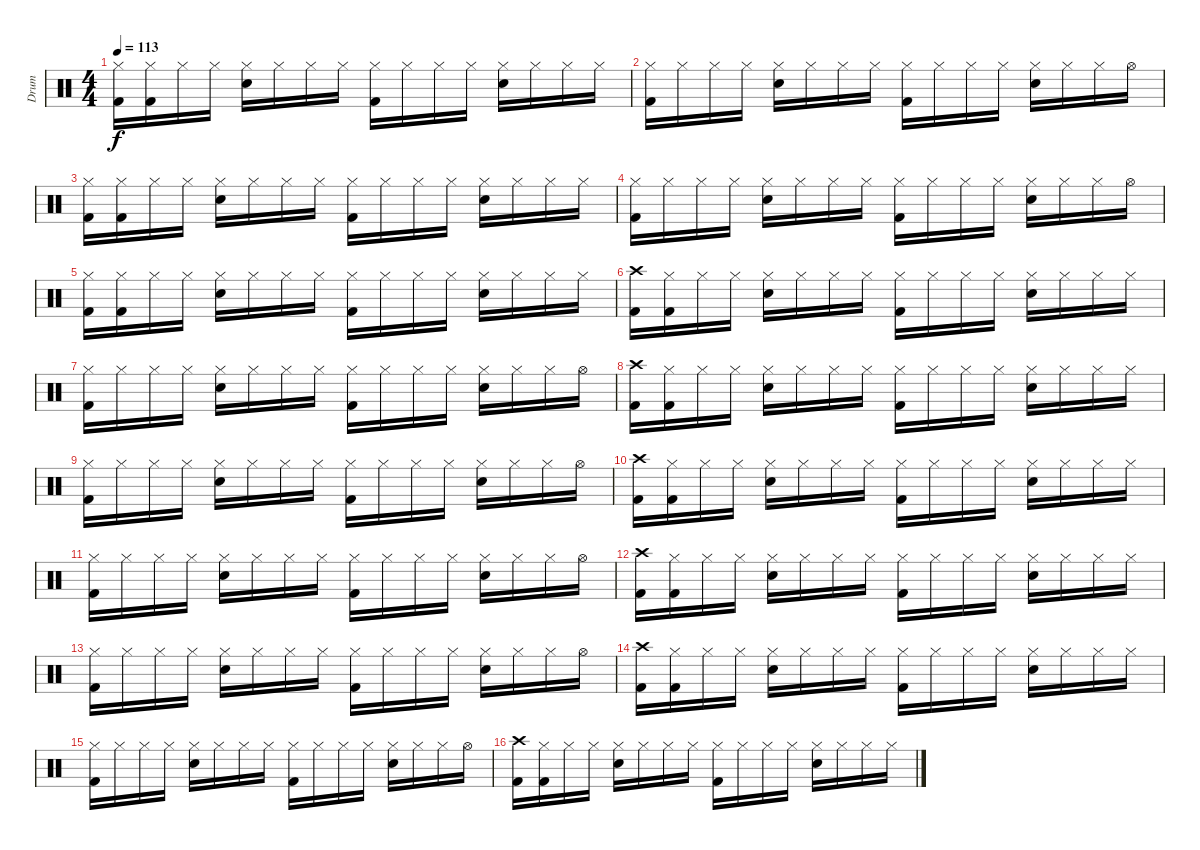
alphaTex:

\track ("Drum" "Drum") {instrument percussion}
\staff {score}
\articulation defaults
\ts (4 4)
\tempo 113
\clef neutral
\ks c
("Hi-Hat (closed)" "Kick (hit) 2").16{dy f} ("Hi-Hat (closed)" "Kick (hit) 2").16 "Hi-Hat (closed)".16 "Hi-Hat (closed)".16 ("Hi-Hat (closed)" "Snare (hit) 2").16 "Hi-Hat (closed)".16 "Hi-Hat (closed)".16 "Hi-Hat (closed)".16 ("Hi-Hat (closed)" "Kick (hit) 2").16 "Hi-Hat (closed)".16 "Hi-Hat (closed)".16 "Hi-Hat (closed)".16 ("Hi-Hat (closed)" "Snare (hit) 2").16 "Hi-Hat (closed)".16 "Hi-Hat (closed)".16 "Hi-Hat (closed)".16 |
("Hi-Hat (closed)" "Kick (hit) 2").16 "Hi-Hat (closed)".16 "Hi-Hat (closed)".16 "Hi-Hat (closed)".16 ("Hi-Hat (closed)" "Snare (hit) 2").16 "Hi-Hat (closed)".16 "Hi-Hat (closed)".16 "Hi-Hat (closed)".16 ("Hi-Hat (closed)" "Kick (hit) 2").16 "Hi-Hat (closed)".16 "Hi-Hat (closed)".16 "Hi-Hat (closed)".16 ("Hi-Hat (closed)" "Snare (hit) 2").16 "Hi-Hat (closed)".16 "Hi-Hat (closed)".16 "Hi-Hat (open)".16 |
("Hi-Hat (closed)" "Kick (hit) 2").16 ("Hi-Hat (closed)" "Kick (hit) 2").16 "Hi-Hat (closed)".16 "Hi-Hat (closed)".16 ("Hi-Hat (closed)" "Snare (hit) 2").16 "Hi-Hat (closed)".16 "Hi-Hat (closed)".16 "Hi-Hat (closed)".16 ("Hi-Hat (closed)" "Kick (hit) 2").16 "Hi-Hat (closed)".16 "Hi-Hat (closed)".16 "Hi-Hat (closed)".16 ("Hi-Hat (closed)" "Snare (hit) 2").16 "Hi-Hat (closed)".16 "Hi-Hat (closed)".16 "Hi-Hat (closed)".16 |
("Hi-Hat (closed)" "Kick (hit) 2").16 "Hi-Hat (closed)".16 "Hi-Hat (closed)".16 "Hi-Hat (closed)".16 ("Hi-Hat (closed)" "Snare (hit) 2").16 "Hi-Hat (closed)".16 "Hi-Hat (closed)".16 "Hi-Hat (closed)".16 ("Hi-Hat (closed)" "Kick (hit) 2").16 "Hi-Hat (closed)".16 "Hi-Hat (closed)".16 "Hi-Hat (closed)".16 ("Hi-Hat (closed)" "Snare (hit) 2").16 "Hi-Hat (closed)".16 "Hi-Hat (closed)".16 "Hi-Hat (open)".16 |
("Hi-Hat (closed)" "Kick (hit) 2").16 ("Hi-Hat (closed)" "Kick (hit) 2").16 "Hi-Hat (closed)".16 "Hi-Hat (closed)".16 ("Hi-Hat (closed)" "Snare (hit) 2").16 "Hi-Hat (closed)".16 "Hi-Hat (closed)".16 "Hi-Hat (closed)".16 ("Hi-Hat (closed)" "Kick (hit) 2").16 "Hi-Hat (closed)".16 "Hi-Hat (closed)".16 "Hi-Hat (closed)".16 ("Hi-Hat (closed)" "Snare (hit) 2").16 "Hi-Hat (closed)".16 "Hi-Hat (closed)".16 "Hi-Hat (closed)".16 |
("Crash high (hit)" "Kick (hit) 2").16 ("Hi-Hat (closed)" "Kick (hit) 2").16 "Hi-Hat (closed)".16 "Hi-Hat (closed)".16 ("Hi-Hat (closed)" "Snare (hit) 2").16 "Hi-Hat (closed)".16 "Hi-Hat (closed)".16 "Hi-Hat (closed)".16 ("Hi-Hat (closed)" "Kick (hit) 2").16 "Hi-Hat (closed)".16 "Hi-Hat (closed)".16 "Hi-Hat (closed)".16 ("Hi-Hat (closed)" "Snare (hit) 2").16 "Hi-Hat (closed)".16 "Hi-Hat (closed)".16 "Hi-Hat (closed)".16 |
("Hi-Hat (closed)" "Kick (hit) 2").16 "Hi-Hat (closed)".16 "Hi-Hat (closed)".16 "Hi-Hat (closed)".16 ("Hi-Hat (closed)" "Snare (hit) 2").16 "Hi-Hat (closed)".16 "Hi-Hat (closed)".16 "Hi-Hat (closed)".16 ("Hi-Hat (closed)" "Kick (hit) 2").16 "Hi-Hat (closed)".16 "Hi-Hat (closed)".16 "Hi-Hat (closed)".16 ("Hi-Hat (closed)" "Snare (hit) 2").16 "Hi-Hat (closed)".16 "Hi-Hat (closed)".16 "Hi-Hat (open)".16 |
("Crash high (hit)" "Kick (hit) 2").16 ("Hi-Hat (closed)" "Kick (hit) 2").16 "Hi-Hat (closed)".16 "Hi-Hat (closed)".16 ("Hi-Hat (closed)" "Snare (hit) 2").16 "Hi-Hat (closed)".16 "Hi-Hat (closed)".16 "Hi-Hat (closed)".16 ("Hi-Hat (closed)" "Kick (hit) 2").16 "Hi-Hat (closed)".16 "Hi-Hat (closed)".16 "Hi-Hat (closed)".16 ("Hi-Hat (closed)" "Snare (hit) 2").16 "Hi-Hat (closed)".16 "Hi-Hat (closed)".16 "Hi-Hat (closed)".16 |
("Hi-Hat (closed)" "Kick (hit) 2").16 "Hi-Hat (closed)".16 "Hi-Hat (closed)".16 "Hi-Hat (closed)".16 ("Hi-Hat (closed)" "Snare (hit) 2").16 "Hi-Hat (closed)".16 "Hi-Hat (closed)".16 "Hi-Hat (closed)".16 ("Hi-Hat (closed)" "Kick (hit) 2").16 "Hi-Hat (closed)".16 "Hi-Hat (closed)".16 "Hi-Hat (closed)".16 ("Hi-Hat (closed)" "Snare (hit) 2").16 "Hi-Hat (closed)".16 "Hi-Hat (closed)".16 "Hi-Hat (open)".16 |
("Crash high (hit)" "Kick (hit) 2").16 ("Hi-Hat (closed)" "Kick (hit) 2").16 "Hi-Hat (closed)".16 "Hi-Hat (closed)".16 ("Hi-Hat (closed)" "Snare (hit) 2").16 "Hi-Hat (closed)".16 "Hi-Hat (closed)".16 "Hi-Hat (closed)".16 ("Hi-Hat (closed)" "Kick (hit) 2").16 "Hi-Hat (closed)".16 "Hi-Hat (closed)".16 "Hi-Hat (closed)".16 ("Hi-Hat (closed)" "Snare (hit) 2").16 "Hi-Hat (closed)".16 "Hi-Hat (closed)".16 "Hi-Hat (closed)".16 |
("Hi-Hat (closed)" "Kick (hit) 2").16 "Hi-Hat (closed)".16 "Hi-Hat (closed)".16 "Hi-Hat (closed)".16 ("Hi-Hat (closed)" "Snare (hit) 2").16 "Hi-Hat (closed)".16 "Hi-Hat (closed)".16 "Hi-Hat (closed)".16 ("Hi-Hat (closed)" "Kick (hit) 2").16 "Hi-Hat (closed)".16 "Hi-Hat (closed)".16 "Hi-Hat (closed)".16 ("Hi-Hat (closed)" "Snare (hit) 2").16 "Hi-Hat (closed)".16 "Hi-Hat (closed)".16 "Hi-Hat (open)".16 |
("Crash high (hit)" "Kick (hit) 2").16 ("Hi-Hat (closed)" "Kick (hit) 2").16 "Hi-Hat (closed)".16 "Hi-Hat (closed)".16 ("Hi-Hat (closed)" "Snare (hit) 2").16 "Hi-Hat (closed)".16 "Hi-Hat (closed)".16 "Hi-Hat (closed)".16 ("Hi-Hat (closed)" "Kick (hit) 2").16 "Hi-Hat (closed)".16 "Hi-Hat (closed)".16 "Hi-Hat (closed)".16 ("Hi-Hat (closed)" "Snare (hit) 2").16 "Hi-Hat (closed)".16 "Hi-Hat (closed)".16 "Hi-Hat (closed)".16 |
("Hi-Hat (closed)" "Kick (hit) 2").16 "Hi-Hat (closed)".16 "Hi-Hat (closed)".16 "Hi-Hat (closed)".16 ("Hi-Hat (closed)" "Snare (hit) 2").16 "Hi-Hat (closed)".16 "Hi-Hat (closed)".16 "Hi-Hat (closed)".16 ("Hi-Hat (closed)" "Kick (hit) 2").16 "Hi-Hat (closed)".16 "Hi-Hat (closed)".16 "Hi-Hat (closed)".16 ("Hi-Hat (closed)" "Snare (hit) 2").16 "Hi-Hat (closed)".16 "Hi-Hat (closed)".16 "Hi-Hat (open)".16 |
("Crash high (hit)" "Kick (hit) 2").16 ("Hi-Hat (closed)" "Kick (hit) 2").16 "Hi-Hat (closed)".16 "Hi-Hat (closed)".16 ("Hi-Hat (closed)" "Snare (hit) 2").16 "Hi-Hat (closed)".16 "Hi-Hat (closed)".16 "Hi-Hat (closed)".16 ("Hi-Hat (closed)" "Kick (hit) 2").16 "Hi-Hat (closed)".16 "Hi-Hat (closed)".16 "Hi-Hat (closed)".16 ("Hi-Hat (closed)" "Snare (hit) 2").16 "Hi-Hat (closed)".16 "Hi-Hat (closed)".16 "Hi-Hat (closed)".16 |
("Hi-Hat (closed)" "Kick (hit) 2").16 "Hi-Hat (closed)".16 "Hi-Hat (closed)".16 "Hi-Hat (closed)".16 ("Hi-Hat (closed)" "Snare (hit) 2").16 "Hi-Hat (closed)".16 "Hi-Hat (closed)".16 "Hi-Hat (closed)".16 ("Hi-Hat (closed)" "Kick (hit) 2").16 "Hi-Hat (closed)".16 "Hi-Hat (closed)".16 "Hi-Hat (closed)".16 ("Hi-Hat (closed)" "Snare (hit) 2").16 "Hi-Hat (closed)".16 "Hi-Hat (closed)".16 "Hi-Hat (open)".16 |
("Crash high (hit)" "Kick (hit) 2").16 ("Hi-Hat (closed)" "Kick (hit) 2").16 "Hi-Hat (closed)".16 "Hi-Hat (closed)".16 ("Hi-Hat (closed)" "Snare (hit) 2").16 "Hi-Hat (closed)".16 "Hi-Hat (closed)".16 "Hi-Hat (closed)".16 ("Hi-Hat (closed)" "Kick (hit) 2").16 "Hi-Hat (closed)".16 "Hi-Hat (closed)".16 "Hi-Hat (closed)".16 ("Hi-Hat (closed)" "Snare (hit) 2").16 "Hi-Hat (closed)".16 "Hi-Hat (closed)".16 "Hi-Hat (closed)".16
